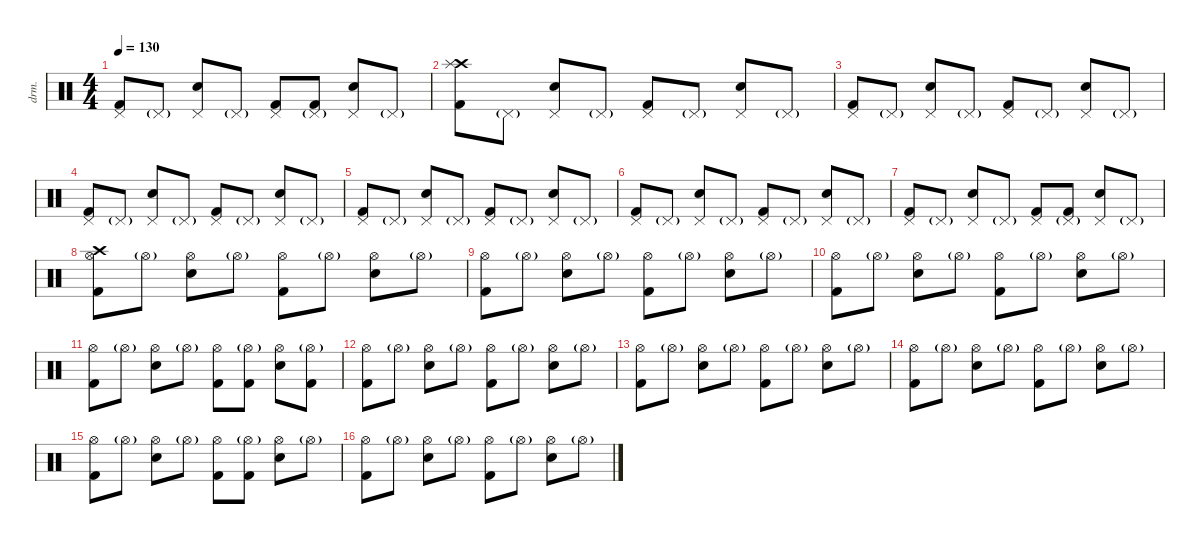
\defaultSystemsLayout 4
\hideDynamics
\bracketExtendMode nobrackets
\otherSystemsTrackNameOrientation horizontal
\track ("Percussion" "drm.") {instrument percussion}
\staff {score}
\articulation defaults
\ts (4 4)
\tempo 130
\clef neutral
\ks c
("Pedal Hi-Hat (hit)" "Kick (hit) 2").8{dy f} "Pedal Hi-Hat (hit)"{g}.8 ("Pedal Hi-Hat (hit)" "Snare (hit) 2").8 "Pedal Hi-Hat (hit)"{g}.8 ("Pedal Hi-Hat (hit)" "Kick (hit) 2").8 ("Pedal Hi-Hat (hit)"{g} "Kick (hit) 2").8 ("Pedal Hi-Hat (hit)" "Snare (hit) 2").8 "Pedal Hi-Hat (hit)"{g}.8 |
("Crash high (hit)" "Splash (hit)" "Kick (hit) 2").8{dy ff} "Pedal Hi-Hat (hit)"{g}.8{dy f} ("Pedal Hi-Hat (hit)" "Snare (hit) 2").8 "Pedal Hi-Hat (hit)"{g}.8 ("Pedal Hi-Hat (hit)" "Kick (hit) 2").8 "Pedal Hi-Hat (hit)"{g}.8 ("Pedal Hi-Hat (hit)" "Snare (hit) 2").8 "Pedal Hi-Hat (hit)"{g}.8 |
("Pedal Hi-Hat (hit)" "Kick (hit) 2").8 "Pedal Hi-Hat (hit)"{g}.8 ("Pedal Hi-Hat (hit)" "Snare (hit) 2").8 "Pedal Hi-Hat (hit)"{g}.8 ("Pedal Hi-Hat (hit)" "Kick (hit) 2").8 "Pedal Hi-Hat (hit)"{g}.8 ("Pedal Hi-Hat (hit)" "Snare (hit) 2").8 "Pedal Hi-Hat (hit)"{g}.8 |
("Pedal Hi-Hat (hit)" "Kick (hit) 2").8 "Pedal Hi-Hat (hit)"{g}.8 ("Pedal Hi-Hat (hit)" "Snare (hit) 2").8 "Pedal Hi-Hat (hit)"{g}.8 ("Pedal Hi-Hat (hit)" "Kick (hit) 2").8 "Pedal Hi-Hat (hit)"{g}.8 ("Pedal Hi-Hat (hit)" "Snare (hit) 2").8 "Pedal Hi-Hat (hit)"{g}.8 |
("Pedal Hi-Hat (hit)" "Kick (hit) 2").8 "Pedal Hi-Hat (hit)"{g}.8 ("Pedal Hi-Hat (hit)" "Snare (hit) 2").8 "Pedal Hi-Hat (hit)"{g}.8 ("Pedal Hi-Hat (hit)" "Kick (hit) 2").8 "Pedal Hi-Hat (hit)"{g}.8 ("Pedal Hi-Hat (hit)" "Snare (hit) 2").8 "Pedal Hi-Hat (hit)"{g}.8 |
("Pedal Hi-Hat (hit)" "Kick (hit) 2").8 "Pedal Hi-Hat (hit)"{g}.8 ("Pedal Hi-Hat (hit)" "Snare (hit) 2").8 "Pedal Hi-Hat (hit)"{g}.8 ("Pedal Hi-Hat (hit)" "Kick (hit) 2").8 "Pedal Hi-Hat (hit)"{g}.8 ("Pedal Hi-Hat (hit)" "Snare (hit) 2").8 "Pedal Hi-Hat (hit)"{g}.8 |
("Pedal Hi-Hat (hit)" "Kick (hit) 2").8 "Pedal Hi-Hat (hit)"{g}.8 ("Pedal Hi-Hat (hit)" "Snare (hit) 2").8 "Pedal Hi-Hat (hit)"{g}.8 ("Pedal Hi-Hat (hit)" "Kick (hit) 2").8 ("Pedal Hi-Hat (hit)"{g} "Kick (hit) 2").8 ("Pedal Hi-Hat (hit)" "Snare (hit) 2").8 "Pedal Hi-Hat (hit)"{g}.8 |
("Hi-Hat (open)" "Crash high (hit)" "Kick (hit) 2").8 "Hi-Hat (open)"{g}.8 ("Hi-Hat (open)" "Snare (hit) 2").8 "Hi-Hat (open)"{g}.8 ("Hi-Hat (open)" "Kick (hit) 2").8 "Hi-Hat (open)"{g}.8 ("Hi-Hat (open)" "Snare (hit) 2").8 "Hi-Hat (open)"{g}.8 |
("Hi-Hat (open)" "Kick (hit) 2").8 "Hi-Hat (open)"{g}.8 ("Hi-Hat (open)" "Snare (hit) 2").8 "Hi-Hat (open)"{g}.8 ("Hi-Hat (open)" "Kick (hit) 2").8 "Hi-Hat (open)"{g}.8 ("Hi-Hat (open)" "Snare (hit) 2").8 "Hi-Hat (open)"{g}.8 |
("Hi-Hat (open)" "Kick (hit) 2").8 "Hi-Hat (open)"{g}.8 ("Hi-Hat (open)" "Snare (hit) 2").8 "Hi-Hat (open)"{g}.8 ("Hi-Hat (open)" "Kick (hit) 2").8 "Hi-Hat (open)"{g}.8 ("Hi-Hat (open)" "Snare (hit) 2").8 "Hi-Hat (open)"{g}.8 |
("Hi-Hat (open)" "Kick (hit) 2").8 "Hi-Hat (open)"{g}.8 ("Hi-Hat (open)" "Snare (hit) 2").8 "Hi-Hat (open)"{g}.8 ("Hi-Hat (open)" "Kick (hit) 2").8 ("Hi-Hat (open)"{g} "Kick (hit) 2").8 ("Hi-Hat (open)" "Snare (hit) 2").8 ("Hi-Hat (open)"{g} "Kick (hit) 2").8 |
("Hi-Hat (open)" "Kick (hit) 2").8 "Hi-Hat (open)"{g}.8 ("Hi-Hat (open)" "Snare (hit) 2").8 "Hi-Hat (open)"{g}.8 ("Hi-Hat (open)" "Kick (hit) 2").8 "Hi-Hat (open)"{g}.8 ("Hi-Hat (open)" "Snare (hit) 2").8 "Hi-Hat (open)"{g}.8 |
("Hi-Hat (open)" "Kick (hit) 2").8 "Hi-Hat (open)"{g}.8 ("Hi-Hat (open)" "Snare (hit) 2").8 "Hi-Hat (open)"{g}.8 ("Hi-Hat (open)" "Kick (hit) 2").8 "Hi-Hat (open)"{g}.8 ("Hi-Hat (open)" "Snare (hit) 2").8 "Hi-Hat (open)"{g}.8 |
("Hi-Hat (open)" "Kick (hit) 2").8 "Hi-Hat (open)"{g}.8 ("Hi-Hat (open)" "Snare (hit) 2").8 "Hi-Hat (open)"{g}.8 ("Hi-Hat (open)" "Kick (hit) 2").8 "Hi-Hat (open)"{g}.8 ("Hi-Hat (open)" "Snare (hit) 2").8 "Hi-Hat (open)"{g}.8 |
("Hi-Hat (open)" "Kick (hit) 2").8 "Hi-Hat (open)"{g}.8 ("Hi-Hat (open)" "Snare (hit) 2").8 "Hi-Hat (open)"{g}.8 ("Hi-Hat (open)" "Kick (hit) 2").8 ("Hi-Hat (open)"{g} "Kick (hit) 2").8 ("Hi-Hat (open)" "Snare (hit) 2").8 "Hi-Hat (open)"{g}.8 |
("Hi-Hat (open)" "Kick (hit) 2").8 "Hi-Hat (open)"{g}.8 ("Hi-Hat (open)" "Snare (hit) 2").8 "Hi-Hat (open)"{g}.8 ("Hi-Hat (open)" "Kick (hit) 2").8 "Hi-Hat (open)"{g}.8 ("Hi-Hat (open)" "Snare (hit) 2").8 "Hi-Hat (open)"{g}.8
